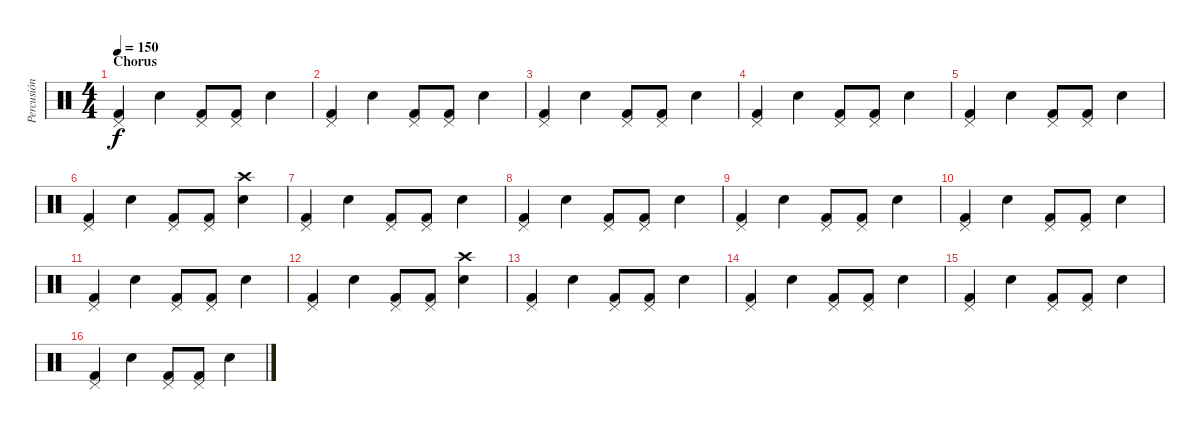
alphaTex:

\track ("Percusión" "Percusión") {instrument percussion}
\staff {score}
\articulation defaults
\ts (4 4)
\section ("" "Chorus")
\tempo 150
\clef neutral
\ks c
("Pedal Hi-Hat (hit)" "Kick (hit) 2").4{dy f} "Snare (hit) 2".4 ("Pedal Hi-Hat (hit)" "Kick (hit) 2").8 ("Pedal Hi-Hat (hit)" "Kick (hit) 2").8 "Snare (hit) 2".4 |
("Pedal Hi-Hat (hit)" "Kick (hit) 2").4 "Snare (hit) 2".4 ("Pedal Hi-Hat (hit)" "Kick (hit) 2").8 ("Pedal Hi-Hat (hit)" "Kick (hit) 2").8 "Snare (hit) 2".4 |
("Pedal Hi-Hat (hit)" "Kick (hit) 2").4 "Snare (hit) 2".4 ("Pedal Hi-Hat (hit)" "Kick (hit) 2").8 ("Pedal Hi-Hat (hit)" "Kick (hit) 2").8 "Snare (hit) 2".4 |
("Pedal Hi-Hat (hit)" "Kick (hit) 2").4 "Snare (hit) 2".4 ("Pedal Hi-Hat (hit)" "Kick (hit) 2").8 ("Pedal Hi-Hat (hit)" "Kick (hit) 2").8 "Snare (hit) 2".4 |
("Pedal Hi-Hat (hit)" "Kick (hit) 2").4 "Snare (hit) 2".4 ("Pedal Hi-Hat (hit)" "Kick (hit) 2").8 ("Pedal Hi-Hat (hit)" "Kick (hit) 2").8 "Snare (hit) 2".4 |
("Pedal Hi-Hat (hit)" "Kick (hit) 2").4 "Snare (hit) 2".4 ("Pedal Hi-Hat (hit)" "Kick (hit) 2").8 ("Pedal Hi-Hat (hit)" "Kick (hit) 2").8 ("Crash high (hit)" "Snare (hit) 2").4 |
("Pedal Hi-Hat (hit)" "Kick (hit) 2").4 "Snare (hit) 2".4 ("Pedal Hi-Hat (hit)" "Kick (hit) 2").8 ("Pedal Hi-Hat (hit)" "Kick (hit) 2").8 "Snare (hit) 2".4 |
("Pedal Hi-Hat (hit)" "Kick (hit) 2").4 "Snare (hit) 2".4 ("Pedal Hi-Hat (hit)" "Kick (hit) 2").8 ("Pedal Hi-Hat (hit)" "Kick (hit) 2").8 "Snare (hit) 2".4 |
("Pedal Hi-Hat (hit)" "Kick (hit) 2").4 "Snare (hit) 2".4 ("Pedal Hi-Hat (hit)" "Kick (hit) 2").8 ("Pedal Hi-Hat (hit)" "Kick (hit) 2").8 "Snare (hit) 2".4 |
("Pedal Hi-Hat (hit)" "Kick (hit) 2").4 "Snare (hit) 2".4 ("Pedal Hi-Hat (hit)" "Kick (hit) 2").8 ("Pedal Hi-Hat (hit)" "Kick (hit) 2").8 "Snare (hit) 2".4 |
("Pedal Hi-Hat (hit)" "Kick (hit) 2").4 "Snare (hit) 2".4 ("Pedal Hi-Hat (hit)" "Kick (hit) 2").8 ("Pedal Hi-Hat (hit)" "Kick (hit) 2").8 "Snare (hit) 2".4 |
("Pedal Hi-Hat (hit)" "Kick (hit) 2").4 "Snare (hit) 2".4 ("Pedal Hi-Hat (hit)" "Kick (hit) 2").8 ("Pedal Hi-Hat (hit)" "Kick (hit) 2").8 ("Crash high (hit)" "Snare (hit) 2").4 |
("Pedal Hi-Hat (hit)" "Kick (hit) 2").4 "Snare (hit) 2".4 ("Pedal Hi-Hat (hit)" "Kick (hit) 2").8 ("Pedal Hi-Hat (hit)" "Kick (hit) 2").8 "Snare (hit) 2".4 |
("Pedal Hi-Hat (hit)" "Kick (hit) 2").4 "Snare (hit) 2".4 ("Pedal Hi-Hat (hit)" "Kick (hit) 2").8 ("Pedal Hi-Hat (hit)" "Kick (hit) 2").8 "Snare (hit) 2".4 |
("Pedal Hi-Hat (hit)" "Kick (hit) 2").4 "Snare (hit) 2".4 ("Pedal Hi-Hat (hit)" "Kick (hit) 2").8 ("Pedal Hi-Hat (hit)" "Kick (hit) 2").8 "Snare (hit) 2".4 |
("Pedal Hi-Hat (hit)" "Kick (hit) 2").4 "Snare (hit) 2".4 ("Pedal Hi-Hat (hit)" "Kick (hit) 2").8 ("Pedal Hi-Hat (hit)" "Kick (hit) 2").8 "Snare (hit) 2".4
